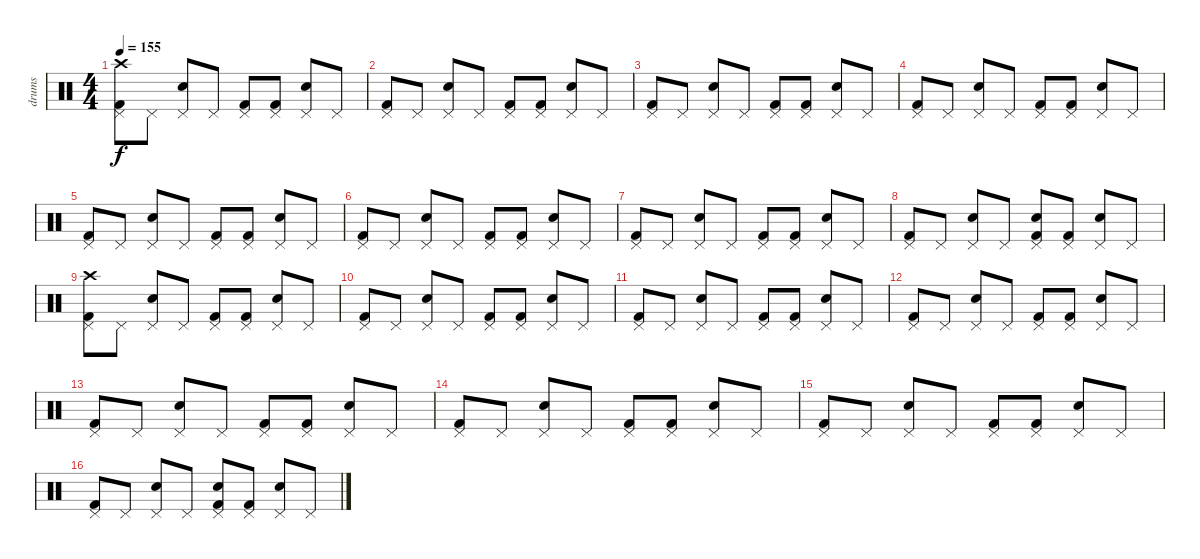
\track ("drums" "drums") {instrument percussion}
\staff {score}
\articulation defaults
\ts (4 4)
\tempo 155
\clef neutral
\ks c
("Kick (hit) 2" "Pedal Hi-Hat (hit)" "Crash high (hit)").8{dy f} "Pedal Hi-Hat (hit)".8 ("Electric Snare (hit)" "Pedal Hi-Hat (hit)").8 "Pedal Hi-Hat (hit)".8 ("Kick (hit) 2" "Pedal Hi-Hat (hit)").8 ("Kick (hit) 2" "Pedal Hi-Hat (hit)").8 ("Electric Snare (hit)" "Pedal Hi-Hat (hit)").8 "Pedal Hi-Hat (hit)".8 |
("Kick (hit) 2" "Pedal Hi-Hat (hit)").8 "Pedal Hi-Hat (hit)".8 ("Electric Snare (hit)" "Pedal Hi-Hat (hit)").8 "Pedal Hi-Hat (hit)".8 ("Kick (hit) 2" "Pedal Hi-Hat (hit)").8 ("Kick (hit) 2" "Pedal Hi-Hat (hit)").8 ("Electric Snare (hit)" "Pedal Hi-Hat (hit)").8 "Pedal Hi-Hat (hit)".8 |
("Kick (hit) 2" "Pedal Hi-Hat (hit)").8 "Pedal Hi-Hat (hit)".8 ("Electric Snare (hit)" "Pedal Hi-Hat (hit)").8 "Pedal Hi-Hat (hit)".8 ("Kick (hit) 2" "Pedal Hi-Hat (hit)").8 ("Kick (hit) 2" "Pedal Hi-Hat (hit)").8 ("Electric Snare (hit)" "Pedal Hi-Hat (hit)").8 "Pedal Hi-Hat (hit)".8 |
("Kick (hit) 2" "Pedal Hi-Hat (hit)").8 "Pedal Hi-Hat (hit)".8 ("Electric Snare (hit)" "Pedal Hi-Hat (hit)").8 "Pedal Hi-Hat (hit)".8 ("Kick (hit) 2" "Pedal Hi-Hat (hit)").8 ("Kick (hit) 2" "Pedal Hi-Hat (hit)").8 ("Electric Snare (hit)" "Pedal Hi-Hat (hit)").8 "Pedal Hi-Hat (hit)".8 |
("Kick (hit) 2" "Pedal Hi-Hat (hit)").8 "Pedal Hi-Hat (hit)".8 ("Electric Snare (hit)" "Pedal Hi-Hat (hit)").8 "Pedal Hi-Hat (hit)".8 ("Kick (hit) 2" "Pedal Hi-Hat (hit)").8 ("Kick (hit) 2" "Pedal Hi-Hat (hit)").8 ("Electric Snare (hit)" "Pedal Hi-Hat (hit)").8 "Pedal Hi-Hat (hit)".8 |
("Kick (hit) 2" "Pedal Hi-Hat (hit)").8 "Pedal Hi-Hat (hit)".8 ("Electric Snare (hit)" "Pedal Hi-Hat (hit)").8 "Pedal Hi-Hat (hit)".8 ("Kick (hit) 2" "Pedal Hi-Hat (hit)").8 ("Kick (hit) 2" "Pedal Hi-Hat (hit)").8 ("Electric Snare (hit)" "Pedal Hi-Hat (hit)").8 "Pedal Hi-Hat (hit)".8 |
("Kick (hit) 2" "Pedal Hi-Hat (hit)").8 "Pedal Hi-Hat (hit)".8 ("Electric Snare (hit)" "Pedal Hi-Hat (hit)").8 "Pedal Hi-Hat (hit)".8 ("Kick (hit) 2" "Pedal Hi-Hat (hit)").8 ("Kick (hit) 2" "Pedal Hi-Hat (hit)").8 ("Electric Snare (hit)" "Pedal Hi-Hat (hit)").8 "Pedal Hi-Hat (hit)".8 |
("Kick (hit) 2" "Pedal Hi-Hat (hit)").8 "Pedal Hi-Hat (hit)".8 ("Electric Snare (hit)" "Pedal Hi-Hat (hit)").8 "Pedal Hi-Hat (hit)".8 ("Kick (hit) 2" "Electric Snare (hit)" "Pedal Hi-Hat (hit)").8 ("Kick (hit) 2" "Pedal Hi-Hat (hit)").8 ("Electric Snare (hit)" "Pedal Hi-Hat (hit)").8 "Pedal Hi-Hat (hit)".8 |
("Kick (hit) 2" "Pedal Hi-Hat (hit)" "Crash high (hit)").8 "Pedal Hi-Hat (hit)".8 ("Electric Snare (hit)" "Pedal Hi-Hat (hit)").8 "Pedal Hi-Hat (hit)".8 ("Kick (hit) 2" "Pedal Hi-Hat (hit)").8 ("Kick (hit) 2" "Pedal Hi-Hat (hit)").8 ("Electric Snare (hit)" "Pedal Hi-Hat (hit)").8 "Pedal Hi-Hat (hit)".8 |
("Kick (hit) 2" "Pedal Hi-Hat (hit)").8 "Pedal Hi-Hat (hit)".8 ("Electric Snare (hit)" "Pedal Hi-Hat (hit)").8 "Pedal Hi-Hat (hit)".8 ("Kick (hit) 2" "Pedal Hi-Hat (hit)").8 ("Kick (hit) 2" "Pedal Hi-Hat (hit)").8 ("Electric Snare (hit)" "Pedal Hi-Hat (hit)").8 "Pedal Hi-Hat (hit)".8 |
("Kick (hit) 2" "Pedal Hi-Hat (hit)").8 "Pedal Hi-Hat (hit)".8 ("Electric Snare (hit)" "Pedal Hi-Hat (hit)").8 "Pedal Hi-Hat (hit)".8 ("Kick (hit) 2" "Pedal Hi-Hat (hit)").8 ("Kick (hit) 2" "Pedal Hi-Hat (hit)").8 ("Electric Snare (hit)" "Pedal Hi-Hat (hit)").8 "Pedal Hi-Hat (hit)".8 |
("Kick (hit) 2" "Pedal Hi-Hat (hit)").8 "Pedal Hi-Hat (hit)".8 ("Electric Snare (hit)" "Pedal Hi-Hat (hit)").8 "Pedal Hi-Hat (hit)".8 ("Kick (hit) 2" "Pedal Hi-Hat (hit)").8 ("Kick (hit) 2" "Pedal Hi-Hat (hit)").8 ("Electric Snare (hit)" "Pedal Hi-Hat (hit)").8 "Pedal Hi-Hat (hit)".8 |
("Kick (hit) 2" "Pedal Hi-Hat (hit)").8 "Pedal Hi-Hat (hit)".8 ("Electric Snare (hit)" "Pedal Hi-Hat (hit)").8 "Pedal Hi-Hat (hit)".8 ("Kick (hit) 2" "Pedal Hi-Hat (hit)").8 ("Kick (hit) 2" "Pedal Hi-Hat (hit)").8 ("Electric Snare (hit)" "Pedal Hi-Hat (hit)").8 "Pedal Hi-Hat (hit)".8 |
("Kick (hit) 2" "Pedal Hi-Hat (hit)").8 "Pedal Hi-Hat (hit)".8 ("Electric Snare (hit)" "Pedal Hi-Hat (hit)").8 "Pedal Hi-Hat (hit)".8 ("Kick (hit) 2" "Pedal Hi-Hat (hit)").8 ("Kick (hit) 2" "Pedal Hi-Hat (hit)").8 ("Electric Snare (hit)" "Pedal Hi-Hat (hit)").8 "Pedal Hi-Hat (hit)".8 |
("Kick (hit) 2" "Pedal Hi-Hat (hit)").8 "Pedal Hi-Hat (hit)".8 ("Electric Snare (hit)" "Pedal Hi-Hat (hit)").8 "Pedal Hi-Hat (hit)".8 ("Kick (hit) 2" "Pedal Hi-Hat (hit)").8 ("Kick (hit) 2" "Pedal Hi-Hat (hit)").8 ("Electric Snare (hit)" "Pedal Hi-Hat (hit)").8 "Pedal Hi-Hat (hit)".8 |
("Kick (hit) 2" "Pedal Hi-Hat (hit)").8 "Pedal Hi-Hat (hit)".8 ("Electric Snare (hit)" "Pedal Hi-Hat (hit)").8 "Pedal Hi-Hat (hit)".8 ("Kick (hit) 2" "Electric Snare (hit)" "Pedal Hi-Hat (hit)").8 ("Kick (hit) 2" "Pedal Hi-Hat (hit)").8 ("Electric Snare (hit)" "Pedal Hi-Hat (hit)").8 "Pedal Hi-Hat (hit)".8
